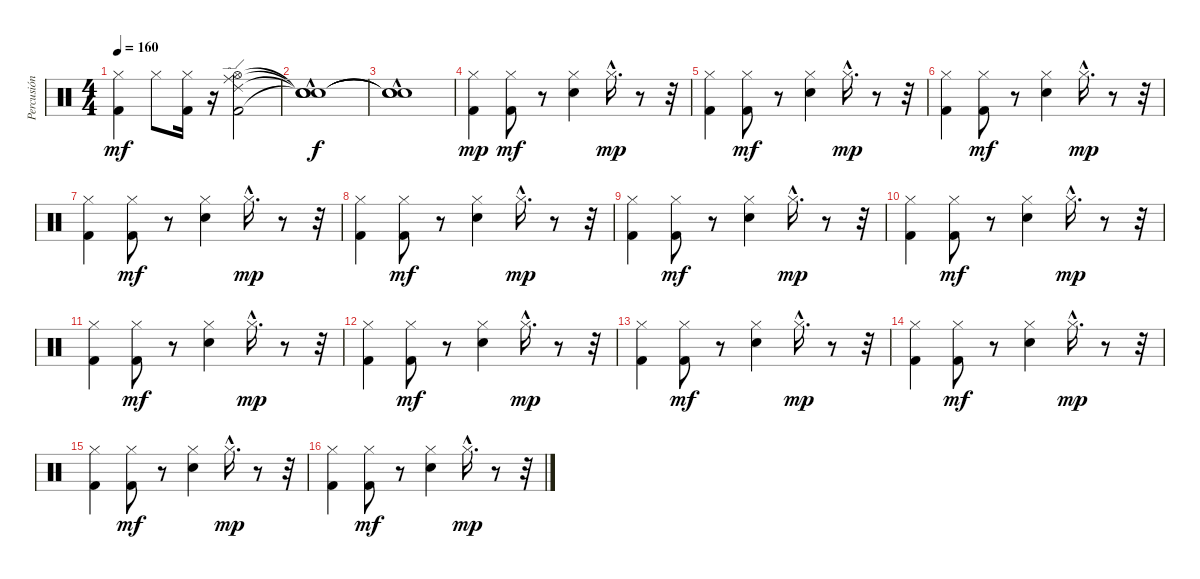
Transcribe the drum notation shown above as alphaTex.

\track ("Percusión" "Percusión") {instrument percussion}
\staff {score}
\articulation defaults
\ts (4 4)
\tempo 160
\clef neutral
\ks c
("Hi-Hat (closed)" "Kick (hit) 2").4{dy mf} "Hi-Hat (closed)".8 ("Hi-Hat (closed)" "Kick (hit) 2").16 r.16 ("Ride (middle)" "Ride (edge) 2" "Hi-Hat (open)" "Kick (hit) 2").2 |
("Snare (hit)"{t} "Snare (hit)"{t} "Snare (hit)"{hac t} "Snare (hit)"{t}).1{dy f} |
("Snare (hit)"{hac t} "Snare (hit)"{hac t} "Snare (hit)"{t}).1 |
("Hi-Hat (closed)" "Kick (hit) 2").4{dy mp} ("Hi-Hat (closed)" "Kick (hit) 2").8{dy mf} r.8 ("Hi-Hat (closed)" "Electric Snare (hit)").4 "Hi-Hat (closed)"{hac}.16{d dy mp} r.8 r.32 |
("Hi-Hat (closed)" "Kick (hit) 2").4 ("Hi-Hat (closed)" "Kick (hit) 2").8{dy mf} r.8 ("Hi-Hat (closed)" "Electric Snare (hit)").4 "Hi-Hat (closed)"{hac}.16{d dy mp} r.8 r.32 |
("Hi-Hat (closed)" "Kick (hit) 2").4 ("Hi-Hat (closed)" "Kick (hit) 2").8{dy mf} r.8 ("Hi-Hat (closed)" "Electric Snare (hit)").4 "Hi-Hat (closed)"{hac}.16{d dy mp} r.8 r.32 |
("Hi-Hat (closed)" "Kick (hit) 2").4 ("Hi-Hat (closed)" "Kick (hit) 2").8{dy mf} r.8 ("Hi-Hat (closed)" "Electric Snare (hit)").4 "Hi-Hat (closed)"{hac}.16{d dy mp} r.8 r.32 |
("Hi-Hat (closed)" "Kick (hit) 2").4 ("Hi-Hat (closed)" "Kick (hit) 2").8{dy mf} r.8 ("Hi-Hat (closed)" "Electric Snare (hit)").4 "Hi-Hat (closed)"{hac}.16{d dy mp} r.8 r.32 |
("Hi-Hat (closed)" "Kick (hit) 2").4 ("Hi-Hat (closed)" "Kick (hit) 2").8{dy mf} r.8 ("Hi-Hat (closed)" "Electric Snare (hit)").4 "Hi-Hat (closed)"{hac}.16{d dy mp} r.8 r.32 |
("Hi-Hat (closed)" "Kick (hit) 2").4 ("Hi-Hat (closed)" "Kick (hit) 2").8{dy mf} r.8 ("Hi-Hat (closed)" "Electric Snare (hit)").4 "Hi-Hat (closed)"{hac}.16{d dy mp} r.8 r.32 |
("Hi-Hat (closed)" "Kick (hit) 2").4 ("Hi-Hat (closed)" "Kick (hit) 2").8{dy mf} r.8 ("Hi-Hat (closed)" "Electric Snare (hit)").4 "Hi-Hat (closed)"{hac}.16{d dy mp} r.8 r.32 |
("Hi-Hat (closed)" "Kick (hit) 2").4 ("Hi-Hat (closed)" "Kick (hit) 2").8{dy mf} r.8 ("Hi-Hat (closed)" "Electric Snare (hit)").4 "Hi-Hat (closed)"{hac}.16{d dy mp} r.8 r.32 |
("Hi-Hat (closed)" "Kick (hit) 2").4 ("Hi-Hat (closed)" "Kick (hit) 2").8{dy mf} r.8 ("Hi-Hat (closed)" "Electric Snare (hit)").4 "Hi-Hat (closed)"{hac}.16{d dy mp} r.8 r.32 |
("Hi-Hat (closed)" "Kick (hit) 2").4 ("Hi-Hat (closed)" "Kick (hit) 2").8{dy mf} r.8 ("Hi-Hat (closed)" "Electric Snare (hit)").4 "Hi-Hat (closed)"{hac}.16{d dy mp} r.8 r.32 |
("Hi-Hat (closed)" "Kick (hit) 2").4 ("Hi-Hat (closed)" "Kick (hit) 2").8{dy mf} r.8 ("Hi-Hat (closed)" "Electric Snare (hit)").4 "Hi-Hat (closed)"{hac}.16{d dy mp} r.8 r.32 |
("Hi-Hat (closed)" "Kick (hit) 2").4 ("Hi-Hat (closed)" "Kick (hit) 2").8{dy mf} r.8 ("Hi-Hat (closed)" "Electric Snare (hit)").4 "Hi-Hat (closed)"{hac}.16{d dy mp} r.8 r.32
